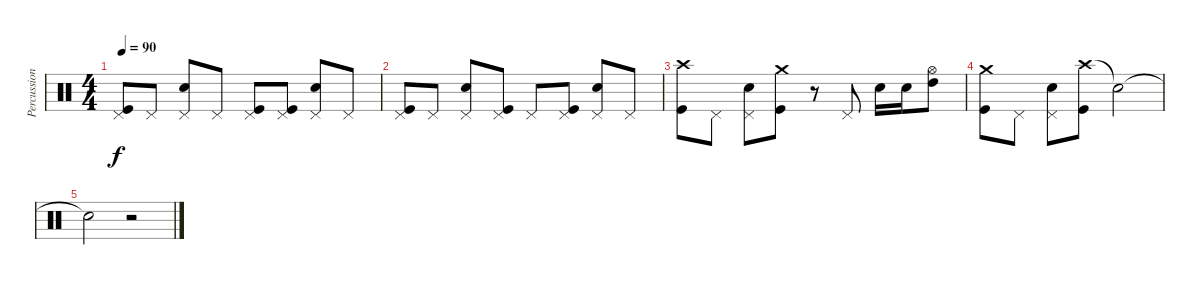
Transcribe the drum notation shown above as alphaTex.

\track ("Percussions" "Percussion") {instrument percussion}
\staff {score}
\articulation defaults
\ts (4 4)
\tempo 90
\clef neutral
\ks c
("Pedal Hi-Hat (hit)" "Kick (hit)").8{dy f} "Pedal Hi-Hat (hit)".8 ("Pedal Hi-Hat (hit)" "Snare (hit) 2").8 "Pedal Hi-Hat (hit)".8 ("Pedal Hi-Hat (hit)" "Kick (hit)").8 ("Pedal Hi-Hat (hit)" "Kick (hit)").8 ("Pedal Hi-Hat (hit)" "Snare (hit) 2").8 "Pedal Hi-Hat (hit)".8 |
("Pedal Hi-Hat (hit)" "Kick (hit)").8 "Pedal Hi-Hat (hit)".8 ("Pedal Hi-Hat (hit)" "Snare (hit) 2").8 ("Pedal Hi-Hat (hit)" "Kick (hit)").8 "Pedal Hi-Hat (hit)".8 ("Pedal Hi-Hat (hit)" "Kick (hit)").8 ("Pedal Hi-Hat (hit)" "Snare (hit) 2").8 "Pedal Hi-Hat (hit)".8 |
("Crash high (hit)" "Kick (hit)").8 "Pedal Hi-Hat (hit)".8 ("Pedal Hi-Hat (hit)" "Snare (hit) 2").8 ("Crash medium (hit)" "Kick (hit)").8 r.8 "Pedal Hi-Hat (hit)".8 "Snare (hit) 2".16 "Snare (hit) 2".16 ("Hi-Hat (open)" "High Tom (hit)").8 |
("Crash medium (hit)" "Kick (hit)").8 "Pedal Hi-Hat (hit)".8 ("Pedal Hi-Hat (hit)" "Snare (hit) 2").8 ("Crash high (hit)" "Kick (hit)").8 "Snare (hit)"{t}.2 |
"Snare (hit)"{t}.2 r.2
